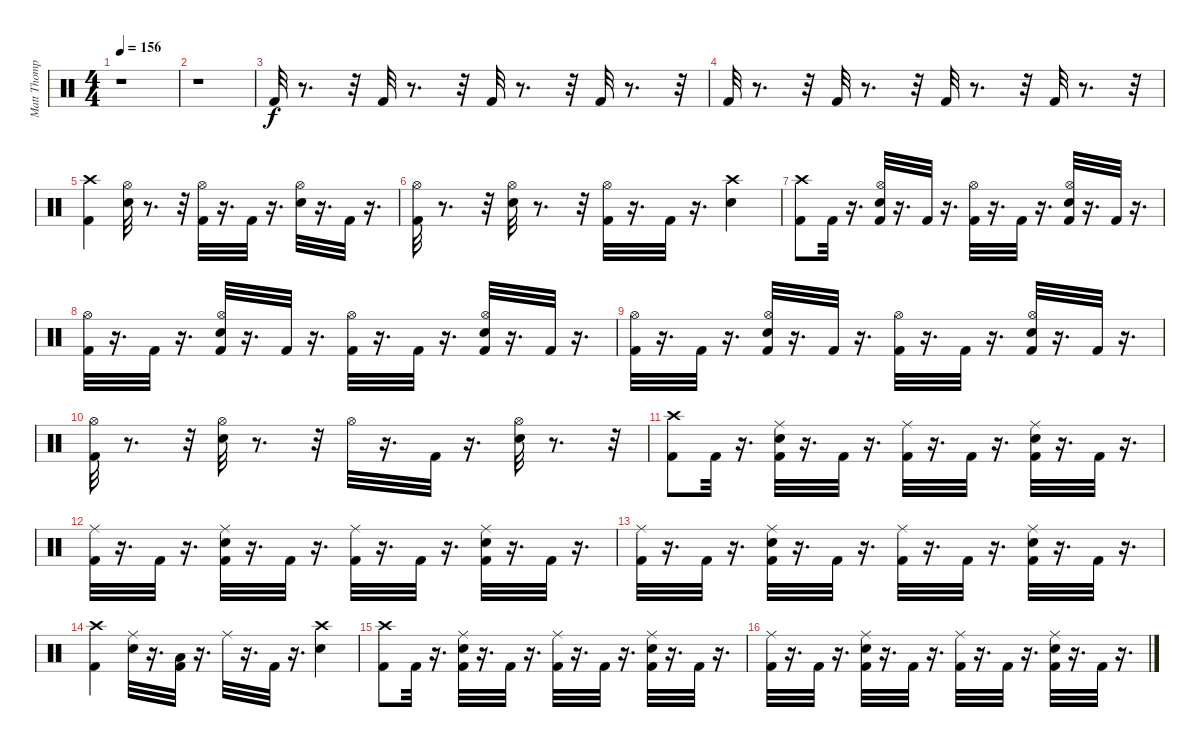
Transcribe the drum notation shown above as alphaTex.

\track ("Matt Thompson" "Matt Thomp") {instrument percussion}
\staff {score}
\articulation defaults
\ts (4 4)
\tempo 156
\clef neutral
\ks c
r.1{dy f} |
r.1 |
"Kick (hit) 2".32 r.8{d} r.32 "Kick (hit) 2".32 r.8{d} r.32 "Kick (hit) 2".32 r.8{d} r.32 "Kick (hit) 2".32 r.8{d} r.32 |
"Kick (hit) 2".32 r.8{d} r.32 "Kick (hit) 2".32 r.8{d} r.32 "Kick (hit) 2".32 r.8{d} r.32 "Kick (hit) 2".32 r.8{d} r.32 |
("Crash high (hit)" "Kick (hit) 2").4 ("Hi-Hat (open)" "Snare (hit) 2").32 r.8{d} r.32 ("Hi-Hat (open)" "Kick (hit) 2").32 r.16{d} "Kick (hit) 2".32 r.16{d} ("Hi-Hat (open)" "Snare (hit) 2").32 r.16{d} "Kick (hit) 2".32 r.16{d} |
("Hi-Hat (open)" "Kick (hit) 2").32 r.8{d} r.32 ("Hi-Hat (open)" "Snare (hit) 2").32 r.8{d} r.32 ("Hi-Hat (open)" "Kick (hit) 2").32 r.16{d} "Kick (hit) 2".32 r.16{d} ("Crash high (hit)" "Snare (hit) 2").4 |
("Crash high (hit)" "Kick (hit) 2").8 "Kick (hit) 2".32 r.16{d} ("Hi-Hat (open)" "Snare (hit) 2" "Kick (hit) 2").32 r.16{d} "Kick (hit) 2".32 r.16{d} ("Hi-Hat (open)" "Kick (hit) 2").32 r.16{d} "Kick (hit) 2".32 r.16{d} ("Hi-Hat (open)" "Snare (hit) 2" "Kick (hit) 2").32 r.16{d} "Kick (hit) 2".32 r.16{d} |
("Hi-Hat (open)" "Kick (hit) 2").32 r.16{d} "Kick (hit) 2".32 r.16{d} ("Hi-Hat (open)" "Snare (hit) 2" "Kick (hit) 2").32 r.16{d} "Kick (hit) 2".32 r.16{d} ("Hi-Hat (open)" "Kick (hit) 2").32 r.16{d} "Kick (hit) 2".32 r.16{d} ("Hi-Hat (open)" "Snare (hit) 2" "Kick (hit) 2").32 r.16{d} "Kick (hit) 2".32 r.16{d} |
("Kick (hit) 2" "Hi-Hat (open)").32 r.16{d} "Kick (hit) 2".32 r.16{d} ("Snare (hit) 2" "Kick (hit) 2" "Hi-Hat (open)").32 r.16{d} "Kick (hit) 2".32 r.16{d} ("Kick (hit) 2" "Hi-Hat (open)").32 r.16{d} "Kick (hit) 2".32 r.16{d} ("Hi-Hat (open)" "Snare (hit) 2" "Kick (hit) 2").32 r.16{d} "Kick (hit) 2".32 r.16{d} |
("Hi-Hat (open)" "Kick (hit) 2").32 r.8{d} r.32 ("Hi-Hat (open)" "Snare (hit) 2").32 r.8{d} r.32 "Hi-Hat (open)".32 r.16{d} "Kick (hit) 2".32 r.16{d} ("Hi-Hat (open)" "Snare (hit) 2").32 r.8{d} r.32 |
("Crash high (hit)" "Kick (hit) 2").8 "Kick (hit) 2".32 r.16{d} ("Ride (middle)" "Snare (hit) 2" "Kick (hit) 2").32 r.16{d} "Kick (hit) 2".32 r.16{d} ("Ride (middle)" "Kick (hit) 2").32 r.16{d} "Kick (hit) 2".32 r.16{d} ("Ride (middle)" "Snare (hit) 2" "Kick (hit) 2").32 r.16{d} "Kick (hit) 2".32 r.16{d} |
("Ride (middle)" "Kick (hit) 2").32 r.16{d} "Kick (hit) 2".32 r.16{d} ("Ride (middle)" "Snare (hit) 2" "Kick (hit) 2").32 r.16{d} "Kick (hit) 2".32 r.16{d} ("Ride (middle)" "Kick (hit) 2").32 r.16{d} "Kick (hit) 2".32 r.16{d} ("Ride (middle)" "Snare (hit) 2" "Kick (hit) 2").32 r.16{d} "Kick (hit) 2".32 r.16{d} |
("Ride (middle)" "Kick (hit) 2").32 r.16{d} "Kick (hit) 2".32 r.16{d} ("Snare (hit) 2" "Ride (middle)" "Kick (hit) 2").32 r.16{d} "Kick (hit) 2".32 r.16{d} ("Ride (middle)" "Kick (hit) 2").32 r.16{d} "Kick (hit) 2".32 r.16{d} ("Ride (middle)" "Snare (hit) 2" "Kick (hit) 2").32 r.16{d} "Kick (hit) 2".32 r.16{d} |
("Crash high (hit)" "Kick (hit) 2").4 ("Ride (middle)" "Snare (hit) 2").32 r.16{d} ("Kick (hit) 2" "Low Tom (hit)").32 r.16{d} "Ride (middle)".32 r.16{d} "Kick (hit) 2".32 r.16{d} ("Crash high (hit)" "Snare (hit) 2").4 |
("Crash high (hit)" "Kick (hit) 2").8 "Kick (hit) 2".32 r.16{d} ("Ride (middle)" "Snare (hit) 2" "Kick (hit) 2").32 r.16{d} "Kick (hit) 2".32 r.16{d} ("Ride (middle)" "Kick (hit) 2").32 r.16{d} "Kick (hit) 2".32 r.16{d} ("Ride (middle)" "Snare (hit) 2" "Kick (hit) 2").32 r.16{d} "Kick (hit) 2".32 r.16{d} |
("Ride (middle)" "Kick (hit) 2").32 r.16{d} "Kick (hit) 2".32 r.16{d} ("Ride (middle)" "Snare (hit) 2" "Kick (hit) 2").32 r.16{d} "Kick (hit) 2".32 r.16{d} ("Ride (middle)" "Kick (hit) 2").32 r.16{d} "Kick (hit) 2".32 r.16{d} ("Ride (middle)" "Snare (hit) 2" "Kick (hit) 2").32 r.16{d} "Kick (hit) 2".32 r.16{d}
